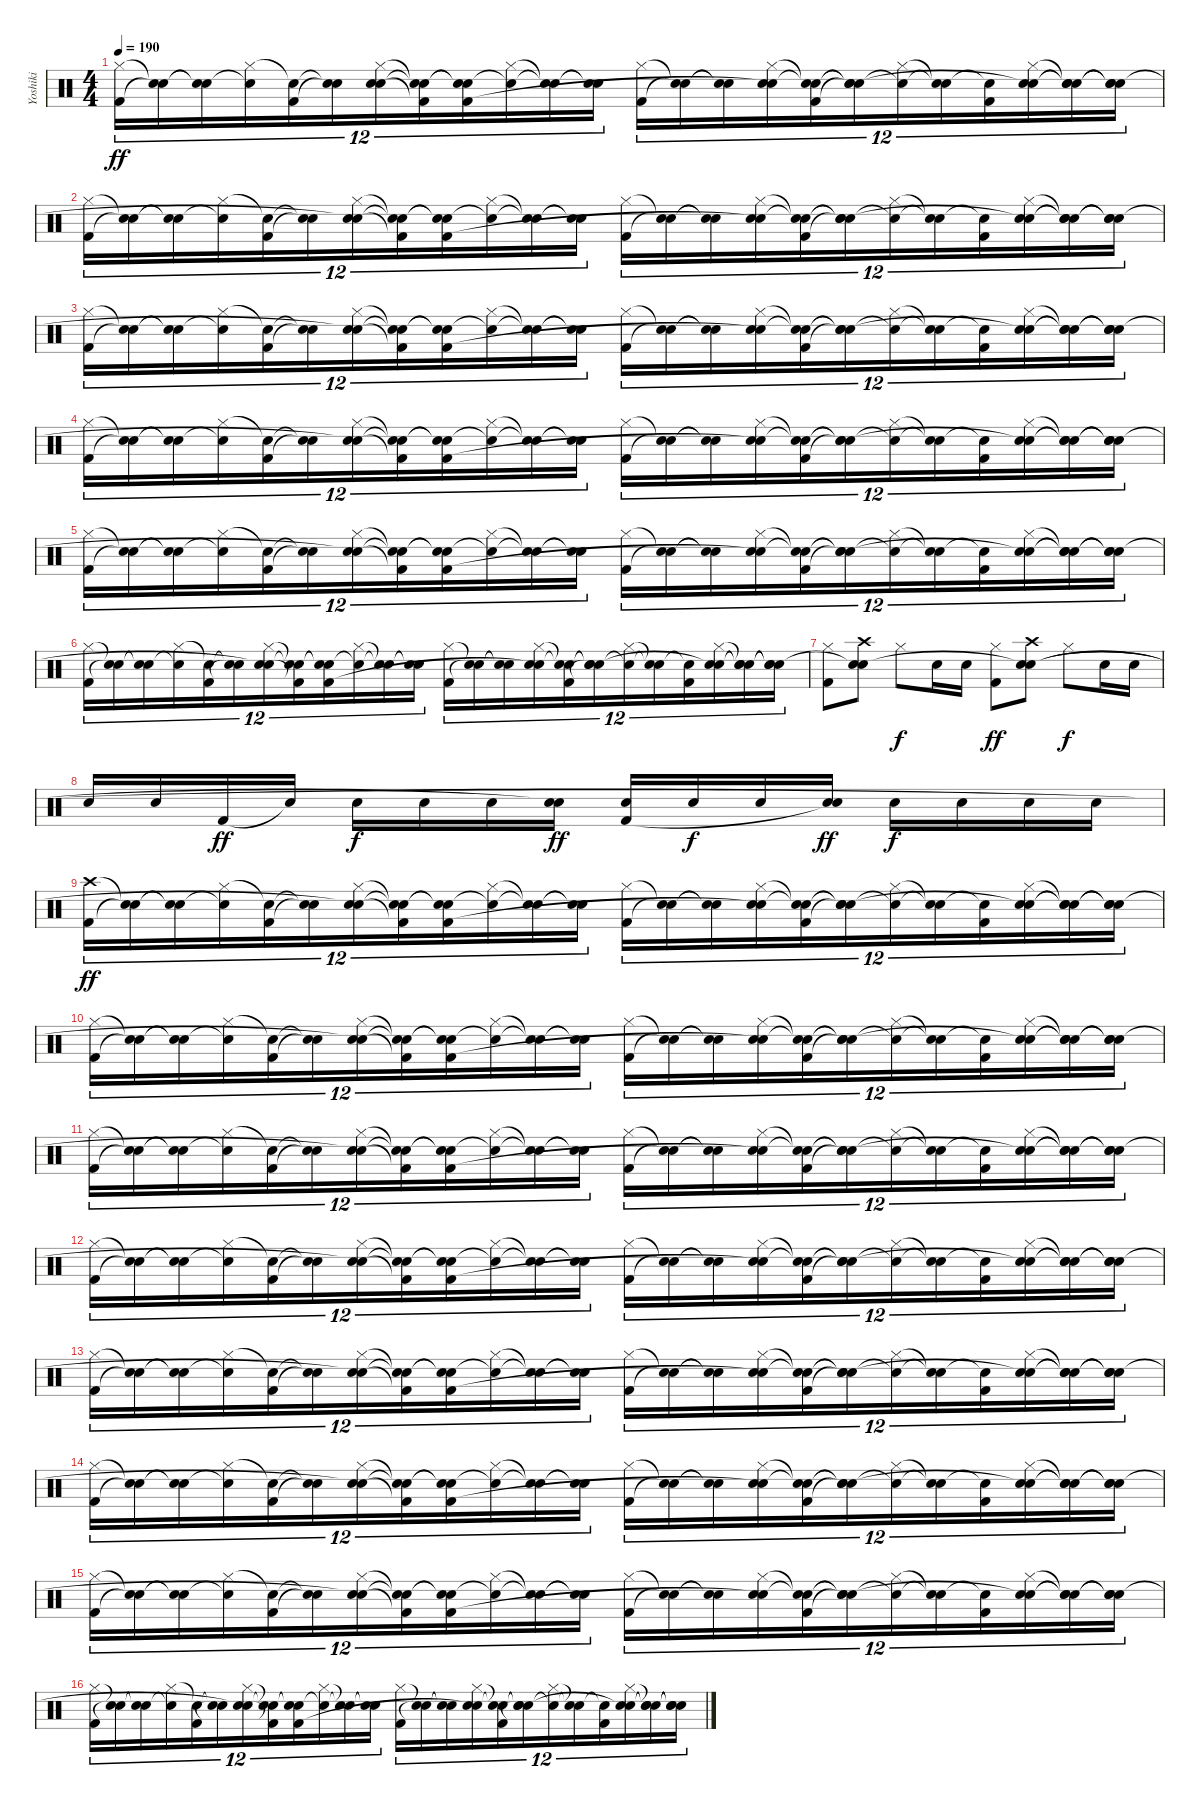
\track ("Yoshiki" "Yoshiki") {instrument percussion}
\staff {score}
\articulation defaults
\ts (4 4)
\tempo 190
\clef neutral
\ks c
("Hi-Hat (closed)" "Kick (hit) 2").16{tu (12 8) dy ff} ("Snare (hit)"{t} "Snare (hit)"{t}).16{tu (12 8)} ("Snare (hit)"{t} "Snare (hit)"{t}).16{tu (12 8)} ("Hi-Hat (closed)" "Snare (hit)"{t}).16{tu (12 8)} ("Snare (hit)"{t} "Kick (hit) 2").16{tu (12 8)} ("Snare (hit)"{t} "Snare (hit)"{t}).16{tu (12 8)} ("Hi-Hat (closed)" "Snare (hit) 2" "Snare (hit)"{t}).16{tu (12 8)} ("Snare (hit)"{t} "Snare (hit)"{t} "Kick (hit) 2"{t}).16{tu (12 8)} ("Snare (hit)"{t} "Snare (hit)"{t} "Kick (hit) 2").16{tu (12 8)} ("Hi-Hat (closed)" "Snare (hit)"{t}).16{tu (12 8)} ("Snare (hit)"{t} "Snare (hit)"{t}).16{tu (12 8)} ("Snare (hit)"{t} "Snare (hit)"{t}).16{tu (12 8)} ("Hi-Hat (closed)" "Kick (hit) 2").16{tu (12 8)} ("Snare (hit)"{t} "Snare (hit)"{t}).16{tu (12 8)} ("Snare (hit)"{t} "Snare (hit)"{t}).16{tu (12 8)} ("Hi-Hat (closed)" "Snare (hit) 2" "Snare (hit)"{t}).16{tu (12 8)} ("Snare (hit)"{t} "Snare (hit)"{t} "Kick (hit) 2").16{tu (12 8)} ("Snare (hit)"{t} "Snare (hit)"{t} "Snare (hit)"{t}).16{tu (12 8)} ("Hi-Hat (closed)" "Snare (hit)"{t}).16{tu (12 8)} ("Snare (hit)"{t} "Snare (hit)"{t}).16{tu (12 8)} ("Snare (hit)"{t} "Kick (hit) 2").16{tu (12 8)} ("Hi-Hat (closed)" "Snare (hit) 2" "Snare (hit)"{t}).16{tu (12 8)} ("Snare (hit)"{t} "Snare (hit)"{t} "Snare (hit)"{t}).16{tu (12 8)} ("Snare (hit)"{t} "Snare (hit)"{t} "Snare (hit)"{t}).16{tu (12 8)} |
("Hi-Hat (closed)" "Kick (hit) 2").16{tu (12 8)} ("Snare (hit)"{t} "Snare (hit)"{t}).16{tu (12 8)} ("Snare (hit)"{t} "Snare (hit)"{t}).16{tu (12 8)} ("Hi-Hat (closed)" "Snare (hit)"{t}).16{tu (12 8)} ("Snare (hit)"{t} "Kick (hit) 2").16{tu (12 8)} ("Snare (hit)"{t} "Snare (hit)"{t}).16{tu (12 8)} ("Hi-Hat (closed)" "Snare (hit) 2" "Snare (hit)"{t}).16{tu (12 8)} ("Snare (hit)"{t} "Snare (hit)"{t} "Kick (hit) 2"{t}).16{tu (12 8)} ("Snare (hit)"{t} "Snare (hit)"{t} "Kick (hit) 2").16{tu (12 8)} ("Hi-Hat (closed)" "Snare (hit)"{t}).16{tu (12 8)} ("Snare (hit)"{t} "Snare (hit)"{t}).16{tu (12 8)} ("Snare (hit)"{t} "Snare (hit)"{t}).16{tu (12 8)} ("Hi-Hat (closed)" "Kick (hit) 2").16{tu (12 8)} ("Snare (hit)"{t} "Snare (hit)"{t}).16{tu (12 8)} ("Snare (hit)"{t} "Snare (hit)"{t}).16{tu (12 8)} ("Hi-Hat (closed)" "Snare (hit) 2" "Snare (hit)"{t}).16{tu (12 8)} ("Snare (hit)"{t} "Snare (hit)"{t} "Kick (hit) 2").16{tu (12 8)} ("Snare (hit)"{t} "Snare (hit)"{t} "Snare (hit)"{t}).16{tu (12 8)} ("Hi-Hat (closed)" "Snare (hit)"{t}).16{tu (12 8)} ("Snare (hit)"{t} "Snare (hit)"{t}).16{tu (12 8)} ("Snare (hit)"{t} "Kick (hit) 2").16{tu (12 8)} ("Hi-Hat (closed)" "Snare (hit) 2" "Snare (hit)"{t}).16{tu (12 8)} ("Snare (hit)"{t} "Snare (hit)"{t} "Snare (hit)"{t}).16{tu (12 8)} ("Snare (hit)"{t} "Snare (hit)"{t} "Snare (hit)"{t}).16{tu (12 8)} |
("Hi-Hat (closed)" "Kick (hit) 2").16{tu (12 8)} ("Snare (hit)"{t} "Snare (hit)"{t}).16{tu (12 8)} ("Snare (hit)"{t} "Snare (hit)"{t}).16{tu (12 8)} ("Hi-Hat (closed)" "Snare (hit)"{t}).16{tu (12 8)} ("Snare (hit)"{t} "Kick (hit) 2").16{tu (12 8)} ("Snare (hit)"{t} "Snare (hit)"{t}).16{tu (12 8)} ("Hi-Hat (closed)" "Snare (hit) 2" "Snare (hit)"{t}).16{tu (12 8)} ("Snare (hit)"{t} "Snare (hit)"{t} "Kick (hit) 2"{t}).16{tu (12 8)} ("Snare (hit)"{t} "Snare (hit)"{t} "Kick (hit) 2").16{tu (12 8)} ("Hi-Hat (closed)" "Snare (hit)"{t}).16{tu (12 8)} ("Snare (hit)"{t} "Snare (hit)"{t}).16{tu (12 8)} ("Snare (hit)"{t} "Snare (hit)"{t}).16{tu (12 8)} ("Hi-Hat (closed)" "Kick (hit) 2").16{tu (12 8)} ("Snare (hit)"{t} "Snare (hit)"{t}).16{tu (12 8)} ("Snare (hit)"{t} "Snare (hit)"{t}).16{tu (12 8)} ("Hi-Hat (closed)" "Snare (hit) 2" "Snare (hit)"{t}).16{tu (12 8)} ("Snare (hit)"{t} "Snare (hit)"{t} "Kick (hit) 2").16{tu (12 8)} ("Snare (hit)"{t} "Snare (hit)"{t} "Snare (hit)"{t}).16{tu (12 8)} ("Hi-Hat (closed)" "Snare (hit)"{t}).16{tu (12 8)} ("Snare (hit)"{t} "Snare (hit)"{t}).16{tu (12 8)} ("Snare (hit)"{t} "Kick (hit) 2").16{tu (12 8)} ("Hi-Hat (closed)" "Snare (hit) 2" "Snare (hit)"{t}).16{tu (12 8)} ("Snare (hit)"{t} "Snare (hit)"{t} "Snare (hit)"{t}).16{tu (12 8)} ("Snare (hit)"{t} "Snare (hit)"{t} "Snare (hit)"{t}).16{tu (12 8)} |
("Hi-Hat (closed)" "Kick (hit) 2").16{tu (12 8)} ("Snare (hit)"{t} "Snare (hit)"{t}).16{tu (12 8)} ("Snare (hit)"{t} "Snare (hit)"{t}).16{tu (12 8)} ("Hi-Hat (closed)" "Snare (hit)"{t}).16{tu (12 8)} ("Snare (hit)"{t} "Kick (hit) 2").16{tu (12 8)} ("Snare (hit)"{t} "Snare (hit)"{t}).16{tu (12 8)} ("Hi-Hat (closed)" "Snare (hit) 2" "Snare (hit)"{t}).16{tu (12 8)} ("Snare (hit)"{t} "Snare (hit)"{t} "Kick (hit) 2"{t}).16{tu (12 8)} ("Snare (hit)"{t} "Snare (hit)"{t} "Kick (hit) 2").16{tu (12 8)} ("Hi-Hat (closed)" "Snare (hit)"{t}).16{tu (12 8)} ("Snare (hit)"{t} "Snare (hit)"{t}).16{tu (12 8)} ("Snare (hit)"{t} "Snare (hit)"{t}).16{tu (12 8)} ("Hi-Hat (closed)" "Kick (hit) 2").16{tu (12 8)} ("Snare (hit)"{t} "Snare (hit)"{t}).16{tu (12 8)} ("Snare (hit)"{t} "Snare (hit)"{t}).16{tu (12 8)} ("Hi-Hat (closed)" "Snare (hit) 2" "Snare (hit)"{t}).16{tu (12 8)} ("Snare (hit)"{t} "Snare (hit)"{t} "Kick (hit) 2").16{tu (12 8)} ("Snare (hit)"{t} "Snare (hit)"{t} "Snare (hit)"{t}).16{tu (12 8)} ("Hi-Hat (closed)" "Snare (hit)"{t}).16{tu (12 8)} ("Snare (hit)"{t} "Snare (hit)"{t}).16{tu (12 8)} ("Snare (hit)"{t} "Kick (hit) 2").16{tu (12 8)} ("Hi-Hat (closed)" "Snare (hit) 2" "Snare (hit)"{t}).16{tu (12 8)} ("Snare (hit)"{t} "Snare (hit)"{t} "Snare (hit)"{t}).16{tu (12 8)} ("Snare (hit)"{t} "Snare (hit)"{t} "Snare (hit)"{t}).16{tu (12 8)} |
("Hi-Hat (closed)" "Kick (hit) 2").16{tu (12 8)} ("Snare (hit)"{t} "Snare (hit)"{t}).16{tu (12 8)} ("Snare (hit)"{t} "Snare (hit)"{t}).16{tu (12 8)} ("Hi-Hat (closed)" "Snare (hit)"{t}).16{tu (12 8)} ("Snare (hit)"{t} "Kick (hit) 2").16{tu (12 8)} ("Snare (hit)"{t} "Snare (hit)"{t}).16{tu (12 8)} ("Hi-Hat (closed)" "Snare (hit) 2" "Snare (hit)"{t}).16{tu (12 8)} ("Snare (hit)"{t} "Snare (hit)"{t} "Kick (hit) 2"{t}).16{tu (12 8)} ("Snare (hit)"{t} "Snare (hit)"{t} "Kick (hit) 2").16{tu (12 8)} ("Hi-Hat (closed)" "Snare (hit)"{t}).16{tu (12 8)} ("Snare (hit)"{t} "Snare (hit)"{t}).16{tu (12 8)} ("Snare (hit)"{t} "Snare (hit)"{t}).16{tu (12 8)} ("Hi-Hat (closed)" "Kick (hit) 2").16{tu (12 8)} ("Snare (hit)"{t} "Snare (hit)"{t}).16{tu (12 8)} ("Snare (hit)"{t} "Snare (hit)"{t}).16{tu (12 8)} ("Hi-Hat (closed)" "Snare (hit) 2" "Snare (hit)"{t}).16{tu (12 8)} ("Snare (hit)"{t} "Snare (hit)"{t} "Kick (hit) 2").16{tu (12 8)} ("Snare (hit)"{t} "Snare (hit)"{t} "Snare (hit)"{t}).16{tu (12 8)} ("Hi-Hat (closed)" "Snare (hit)"{t}).16{tu (12 8)} ("Snare (hit)"{t} "Snare (hit)"{t}).16{tu (12 8)} ("Snare (hit)"{t} "Kick (hit) 2").16{tu (12 8)} ("Hi-Hat (closed)" "Snare (hit) 2" "Snare (hit)"{t}).16{tu (12 8)} ("Snare (hit)"{t} "Snare (hit)"{t} "Snare (hit)"{t}).16{tu (12 8)} ("Snare (hit)"{t} "Snare (hit)"{t} "Snare (hit)"{t}).16{tu (12 8)} |
("Hi-Hat (closed)" "Kick (hit) 2").16{tu (12 8)} ("Snare (hit)"{t} "Snare (hit)"{t}).16{tu (12 8)} ("Snare (hit)"{t} "Snare (hit)"{t}).16{tu (12 8)} ("Hi-Hat (closed)" "Snare (hit)"{t}).16{tu (12 8)} ("Snare (hit)"{t} "Kick (hit) 2").16{tu (12 8)} ("Snare (hit)"{t} "Snare (hit)"{t}).16{tu (12 8)} ("Hi-Hat (closed)" "Snare (hit) 2" "Snare (hit)"{t}).16{tu (12 8)} ("Snare (hit)"{t} "Snare (hit)"{t} "Kick (hit) 2"{t}).16{tu (12 8)} ("Snare (hit)"{t} "Snare (hit)"{t} "Kick (hit) 2").16{tu (12 8)} ("Hi-Hat (closed)" "Snare (hit)"{t}).16{tu (12 8)} ("Snare (hit)"{t} "Snare (hit)"{t}).16{tu (12 8)} ("Snare (hit)"{t} "Snare (hit)"{t}).16{tu (12 8)} ("Hi-Hat (closed)" "Kick (hit) 2").16{tu (12 8)} ("Snare (hit)"{t} "Snare (hit)"{t}).16{tu (12 8)} ("Snare (hit)"{t} "Snare (hit)"{t}).16{tu (12 8)} ("Hi-Hat (closed)" "Snare (hit) 2" "Snare (hit)"{t}).16{tu (12 8)} ("Snare (hit)"{t} "Snare (hit)"{t} "Kick (hit) 2").16{tu (12 8)} ("Snare (hit)"{t} "Snare (hit)"{t} "Snare (hit)"{t}).16{tu (12 8)} ("Hi-Hat (closed)" "Snare (hit)"{t}).16{tu (12 8)} ("Snare (hit)"{t} "Snare (hit)"{t}).16{tu (12 8)} ("Snare (hit)"{t} "Kick (hit) 2").16{tu (12 8)} ("Hi-Hat (closed)" "Snare (hit) 2" "Snare (hit)"{t}).16{tu (12 8)} ("Snare (hit)"{t} "Snare (hit)"{t} "Snare (hit)"{t}).16{tu (12 8)} ("Snare (hit)"{t} "Snare (hit)"{t} "Snare (hit)"{t}).16{tu (12 8)} |
("Hi-Hat (closed)" "Kick (hit) 2").8 ("Crash high (hit)" "Snare (hit) 2" "Snare (hit)"{t}).8 "Hi-Hat (closed)".8{dy f} "Snare (hit) 2".16 "Snare (hit) 2".16 ("Hi-Hat (closed)" "Kick (hit) 2").8{dy ff} ("Crash high (hit)" "Snare (hit) 2" "Snare (hit)"{t}).8 "Hi-Hat (closed)".8{dy f} "Snare (hit) 2".16 "Snare (hit) 2".16 |
"Snare (hit) 2".16 "Snare (hit) 2".16 "Kick (hit) 2".16{dy ff} "Snare (hit)"{t}.16 "Snare (hit) 2".16{dy f} "Snare (hit) 2".16 "Snare (hit) 2".16 ("Snare (hit) 2" "Snare (hit)"{t}).16{dy ff} ("Snare (hit) 2" "Kick (hit) 2").16 "Snare (hit) 2".16{dy f} "Snare (hit) 2".16 ("Snare (hit) 2" "Snare (hit)"{t}).16{dy ff} "Snare (hit) 2".16{dy f} "Snare (hit) 2".16 "Snare (hit) 2".16 "Snare (hit) 2".16 |
("Crash high (hit)" "Kick (hit) 2").16{tu (12 8) dy ff} ("Snare (hit)"{t} "Snare (hit)"{t}).16{tu (12 8)} ("Snare (hit)"{t} "Snare (hit)"{t}).16{tu (12 8)} ("Hi-Hat (closed)" "Snare (hit)"{t}).16{tu (12 8)} ("Snare (hit)"{t} "Kick (hit) 2").16{tu (12 8)} ("Snare (hit)"{t} "Snare (hit)"{t}).16{tu (12 8)} ("Hi-Hat (closed)" "Snare (hit) 2" "Snare (hit)"{t}).16{tu (12 8)} ("Snare (hit)"{t} "Snare (hit)"{t} "Kick (hit) 2"{t}).16{tu (12 8)} ("Snare (hit)"{t} "Snare (hit)"{t} "Kick (hit) 2").16{tu (12 8)} ("Hi-Hat (closed)" "Snare (hit)"{t}).16{tu (12 8)} ("Snare (hit)"{t} "Snare (hit)"{t}).16{tu (12 8)} ("Snare (hit)"{t} "Snare (hit)"{t}).16{tu (12 8)} ("Hi-Hat (closed)" "Kick (hit) 2").16{tu (12 8)} ("Snare (hit)"{t} "Snare (hit)"{t}).16{tu (12 8)} ("Snare (hit)"{t} "Snare (hit)"{t}).16{tu (12 8)} ("Hi-Hat (closed)" "Snare (hit) 2" "Snare (hit)"{t}).16{tu (12 8)} ("Snare (hit)"{t} "Snare (hit)"{t} "Kick (hit) 2").16{tu (12 8)} ("Snare (hit)"{t} "Snare (hit)"{t} "Snare (hit)"{t}).16{tu (12 8)} ("Hi-Hat (closed)" "Snare (hit)"{t}).16{tu (12 8)} ("Snare (hit)"{t} "Snare (hit)"{t}).16{tu (12 8)} ("Snare (hit)"{t} "Kick (hit) 2").16{tu (12 8)} ("Hi-Hat (closed)" "Snare (hit) 2" "Snare (hit)"{t}).16{tu (12 8)} ("Snare (hit)"{t} "Snare (hit)"{t} "Snare (hit)"{t}).16{tu (12 8)} ("Snare (hit)"{t} "Snare (hit)"{t} "Snare (hit)"{t}).16{tu (12 8)} |
("Hi-Hat (closed)" "Kick (hit) 2").16{tu (12 8)} ("Snare (hit)"{t} "Snare (hit)"{t}).16{tu (12 8)} ("Snare (hit)"{t} "Snare (hit)"{t}).16{tu (12 8)} ("Hi-Hat (closed)" "Snare (hit)"{t}).16{tu (12 8)} ("Snare (hit)"{t} "Kick (hit) 2").16{tu (12 8)} ("Snare (hit)"{t} "Snare (hit)"{t}).16{tu (12 8)} ("Hi-Hat (closed)" "Snare (hit) 2" "Snare (hit)"{t}).16{tu (12 8)} ("Snare (hit)"{t} "Snare (hit)"{t} "Kick (hit) 2"{t}).16{tu (12 8)} ("Snare (hit)"{t} "Snare (hit)"{t} "Kick (hit) 2").16{tu (12 8)} ("Hi-Hat (closed)" "Snare (hit)"{t}).16{tu (12 8)} ("Snare (hit)"{t} "Snare (hit)"{t}).16{tu (12 8)} ("Snare (hit)"{t} "Snare (hit)"{t}).16{tu (12 8)} ("Hi-Hat (closed)" "Kick (hit) 2").16{tu (12 8)} ("Snare (hit)"{t} "Snare (hit)"{t}).16{tu (12 8)} ("Snare (hit)"{t} "Snare (hit)"{t}).16{tu (12 8)} ("Hi-Hat (closed)" "Snare (hit) 2" "Snare (hit)"{t}).16{tu (12 8)} ("Snare (hit)"{t} "Snare (hit)"{t} "Kick (hit) 2").16{tu (12 8)} ("Snare (hit)"{t} "Snare (hit)"{t} "Snare (hit)"{t}).16{tu (12 8)} ("Hi-Hat (closed)" "Snare (hit)"{t}).16{tu (12 8)} ("Snare (hit)"{t} "Snare (hit)"{t}).16{tu (12 8)} ("Snare (hit)"{t} "Kick (hit) 2").16{tu (12 8)} ("Hi-Hat (closed)" "Snare (hit) 2" "Snare (hit)"{t}).16{tu (12 8)} ("Snare (hit)"{t} "Snare (hit)"{t} "Snare (hit)"{t}).16{tu (12 8)} ("Snare (hit)"{t} "Snare (hit)"{t} "Snare (hit)"{t}).16{tu (12 8)} |
("Hi-Hat (closed)" "Kick (hit) 2").16{tu (12 8)} ("Snare (hit)"{t} "Snare (hit)"{t}).16{tu (12 8)} ("Snare (hit)"{t} "Snare (hit)"{t}).16{tu (12 8)} ("Hi-Hat (closed)" "Snare (hit)"{t}).16{tu (12 8)} ("Snare (hit)"{t} "Kick (hit) 2").16{tu (12 8)} ("Snare (hit)"{t} "Snare (hit)"{t}).16{tu (12 8)} ("Hi-Hat (closed)" "Snare (hit) 2" "Snare (hit)"{t}).16{tu (12 8)} ("Snare (hit)"{t} "Snare (hit)"{t} "Kick (hit) 2"{t}).16{tu (12 8)} ("Snare (hit)"{t} "Snare (hit)"{t} "Kick (hit) 2").16{tu (12 8)} ("Hi-Hat (closed)" "Snare (hit)"{t}).16{tu (12 8)} ("Snare (hit)"{t} "Snare (hit)"{t}).16{tu (12 8)} ("Snare (hit)"{t} "Snare (hit)"{t}).16{tu (12 8)} ("Hi-Hat (closed)" "Kick (hit) 2").16{tu (12 8)} ("Snare (hit)"{t} "Snare (hit)"{t}).16{tu (12 8)} ("Snare (hit)"{t} "Snare (hit)"{t}).16{tu (12 8)} ("Hi-Hat (closed)" "Snare (hit) 2" "Snare (hit)"{t}).16{tu (12 8)} ("Snare (hit)"{t} "Snare (hit)"{t} "Kick (hit) 2").16{tu (12 8)} ("Snare (hit)"{t} "Snare (hit)"{t} "Snare (hit)"{t}).16{tu (12 8)} ("Hi-Hat (closed)" "Snare (hit)"{t}).16{tu (12 8)} ("Snare (hit)"{t} "Snare (hit)"{t}).16{tu (12 8)} ("Snare (hit)"{t} "Kick (hit) 2").16{tu (12 8)} ("Hi-Hat (closed)" "Snare (hit) 2" "Snare (hit)"{t}).16{tu (12 8)} ("Snare (hit)"{t} "Snare (hit)"{t} "Snare (hit)"{t}).16{tu (12 8)} ("Snare (hit)"{t} "Snare (hit)"{t} "Snare (hit)"{t}).16{tu (12 8)} |
("Hi-Hat (closed)" "Kick (hit) 2").16{tu (12 8)} ("Snare (hit)"{t} "Snare (hit)"{t}).16{tu (12 8)} ("Snare (hit)"{t} "Snare (hit)"{t}).16{tu (12 8)} ("Hi-Hat (closed)" "Snare (hit)"{t}).16{tu (12 8)} ("Snare (hit)"{t} "Kick (hit) 2").16{tu (12 8)} ("Snare (hit)"{t} "Snare (hit)"{t}).16{tu (12 8)} ("Hi-Hat (closed)" "Snare (hit) 2" "Snare (hit)"{t}).16{tu (12 8)} ("Snare (hit)"{t} "Snare (hit)"{t} "Kick (hit) 2"{t}).16{tu (12 8)} ("Snare (hit)"{t} "Snare (hit)"{t} "Kick (hit) 2").16{tu (12 8)} ("Hi-Hat (closed)" "Snare (hit)"{t}).16{tu (12 8)} ("Snare (hit)"{t} "Snare (hit)"{t}).16{tu (12 8)} ("Snare (hit)"{t} "Snare (hit)"{t}).16{tu (12 8)} ("Hi-Hat (closed)" "Kick (hit) 2").16{tu (12 8)} ("Snare (hit)"{t} "Snare (hit)"{t}).16{tu (12 8)} ("Snare (hit)"{t} "Snare (hit)"{t}).16{tu (12 8)} ("Hi-Hat (closed)" "Snare (hit) 2" "Snare (hit)"{t}).16{tu (12 8)} ("Snare (hit)"{t} "Snare (hit)"{t} "Kick (hit) 2").16{tu (12 8)} ("Snare (hit)"{t} "Snare (hit)"{t} "Snare (hit)"{t}).16{tu (12 8)} ("Hi-Hat (closed)" "Snare (hit)"{t}).16{tu (12 8)} ("Snare (hit)"{t} "Snare (hit)"{t}).16{tu (12 8)} ("Snare (hit)"{t} "Kick (hit) 2").16{tu (12 8)} ("Hi-Hat (closed)" "Snare (hit) 2" "Snare (hit)"{t}).16{tu (12 8)} ("Snare (hit)"{t} "Snare (hit)"{t} "Snare (hit)"{t}).16{tu (12 8)} ("Snare (hit)"{t} "Snare (hit)"{t} "Snare (hit)"{t}).16{tu (12 8)} |
("Hi-Hat (closed)" "Kick (hit) 2").16{tu (12 8)} ("Snare (hit)"{t} "Snare (hit)"{t}).16{tu (12 8)} ("Snare (hit)"{t} "Snare (hit)"{t}).16{tu (12 8)} ("Hi-Hat (closed)" "Snare (hit)"{t}).16{tu (12 8)} ("Snare (hit)"{t} "Kick (hit) 2").16{tu (12 8)} ("Snare (hit)"{t} "Snare (hit)"{t}).16{tu (12 8)} ("Hi-Hat (closed)" "Snare (hit) 2" "Snare (hit)"{t}).16{tu (12 8)} ("Snare (hit)"{t} "Snare (hit)"{t} "Kick (hit) 2"{t}).16{tu (12 8)} ("Snare (hit)"{t} "Snare (hit)"{t} "Kick (hit) 2").16{tu (12 8)} ("Hi-Hat (closed)" "Snare (hit)"{t}).16{tu (12 8)} ("Snare (hit)"{t} "Snare (hit)"{t}).16{tu (12 8)} ("Snare (hit)"{t} "Snare (hit)"{t}).16{tu (12 8)} ("Hi-Hat (closed)" "Kick (hit) 2").16{tu (12 8)} ("Snare (hit)"{t} "Snare (hit)"{t}).16{tu (12 8)} ("Snare (hit)"{t} "Snare (hit)"{t}).16{tu (12 8)} ("Hi-Hat (closed)" "Snare (hit) 2" "Snare (hit)"{t}).16{tu (12 8)} ("Snare (hit)"{t} "Snare (hit)"{t} "Kick (hit) 2").16{tu (12 8)} ("Snare (hit)"{t} "Snare (hit)"{t} "Snare (hit)"{t}).16{tu (12 8)} ("Hi-Hat (closed)" "Snare (hit)"{t}).16{tu (12 8)} ("Snare (hit)"{t} "Snare (hit)"{t}).16{tu (12 8)} ("Snare (hit)"{t} "Kick (hit) 2").16{tu (12 8)} ("Hi-Hat (closed)" "Snare (hit) 2" "Snare (hit)"{t}).16{tu (12 8)} ("Snare (hit)"{t} "Snare (hit)"{t} "Snare (hit)"{t}).16{tu (12 8)} ("Snare (hit)"{t} "Snare (hit)"{t} "Snare (hit)"{t}).16{tu (12 8)} |
("Hi-Hat (closed)" "Kick (hit) 2").16{tu (12 8)} ("Snare (hit)"{t} "Snare (hit)"{t}).16{tu (12 8)} ("Snare (hit)"{t} "Snare (hit)"{t}).16{tu (12 8)} ("Hi-Hat (closed)" "Snare (hit)"{t}).16{tu (12 8)} ("Snare (hit)"{t} "Kick (hit) 2").16{tu (12 8)} ("Snare (hit)"{t} "Snare (hit)"{t}).16{tu (12 8)} ("Hi-Hat (closed)" "Snare (hit) 2" "Snare (hit)"{t}).16{tu (12 8)} ("Snare (hit)"{t} "Snare (hit)"{t} "Kick (hit) 2"{t}).16{tu (12 8)} ("Snare (hit)"{t} "Snare (hit)"{t} "Kick (hit) 2").16{tu (12 8)} ("Hi-Hat (closed)" "Snare (hit)"{t}).16{tu (12 8)} ("Snare (hit)"{t} "Snare (hit)"{t}).16{tu (12 8)} ("Snare (hit)"{t} "Snare (hit)"{t}).16{tu (12 8)} ("Hi-Hat (closed)" "Kick (hit) 2").16{tu (12 8)} ("Snare (hit)"{t} "Snare (hit)"{t}).16{tu (12 8)} ("Snare (hit)"{t} "Snare (hit)"{t}).16{tu (12 8)} ("Hi-Hat (closed)" "Snare (hit) 2" "Snare (hit)"{t}).16{tu (12 8)} ("Snare (hit)"{t} "Snare (hit)"{t} "Kick (hit) 2").16{tu (12 8)} ("Snare (hit)"{t} "Snare (hit)"{t} "Snare (hit)"{t}).16{tu (12 8)} ("Hi-Hat (closed)" "Snare (hit)"{t}).16{tu (12 8)} ("Snare (hit)"{t} "Snare (hit)"{t}).16{tu (12 8)} ("Snare (hit)"{t} "Kick (hit) 2").16{tu (12 8)} ("Hi-Hat (closed)" "Snare (hit) 2" "Snare (hit)"{t}).16{tu (12 8)} ("Snare (hit)"{t} "Snare (hit)"{t} "Snare (hit)"{t}).16{tu (12 8)} ("Snare (hit)"{t} "Snare (hit)"{t} "Snare (hit)"{t}).16{tu (12 8)} |
("Hi-Hat (closed)" "Kick (hit) 2").16{tu (12 8)} ("Snare (hit)"{t} "Snare (hit)"{t}).16{tu (12 8)} ("Snare (hit)"{t} "Snare (hit)"{t}).16{tu (12 8)} ("Hi-Hat (closed)" "Snare (hit)"{t}).16{tu (12 8)} ("Snare (hit)"{t} "Kick (hit) 2").16{tu (12 8)} ("Snare (hit)"{t} "Snare (hit)"{t}).16{tu (12 8)} ("Hi-Hat (closed)" "Snare (hit) 2" "Snare (hit)"{t}).16{tu (12 8)} ("Snare (hit)"{t} "Snare (hit)"{t} "Kick (hit) 2"{t}).16{tu (12 8)} ("Snare (hit)"{t} "Snare (hit)"{t} "Kick (hit) 2").16{tu (12 8)} ("Hi-Hat (closed)" "Snare (hit)"{t}).16{tu (12 8)} ("Snare (hit)"{t} "Snare (hit)"{t}).16{tu (12 8)} ("Snare (hit)"{t} "Snare (hit)"{t}).16{tu (12 8)} ("Hi-Hat (closed)" "Kick (hit) 2").16{tu (12 8)} ("Snare (hit)"{t} "Snare (hit)"{t}).16{tu (12 8)} ("Snare (hit)"{t} "Snare (hit)"{t}).16{tu (12 8)} ("Hi-Hat (closed)" "Snare (hit) 2" "Snare (hit)"{t}).16{tu (12 8)} ("Snare (hit)"{t} "Snare (hit)"{t} "Kick (hit) 2").16{tu (12 8)} ("Snare (hit)"{t} "Snare (hit)"{t} "Snare (hit)"{t}).16{tu (12 8)} ("Hi-Hat (closed)" "Snare (hit)"{t}).16{tu (12 8)} ("Snare (hit)"{t} "Snare (hit)"{t}).16{tu (12 8)} ("Snare (hit)"{t} "Kick (hit) 2").16{tu (12 8)} ("Hi-Hat (closed)" "Snare (hit) 2" "Snare (hit)"{t}).16{tu (12 8)} ("Snare (hit)"{t} "Snare (hit)"{t} "Snare (hit)"{t}).16{tu (12 8)} ("Snare (hit)"{t} "Snare (hit)"{t} "Snare (hit)"{t}).16{tu (12 8)} |
("Hi-Hat (closed)" "Kick (hit) 2").16{tu (12 8)} ("Snare (hit)"{t} "Snare (hit)"{t}).16{tu (12 8)} ("Snare (hit)"{t} "Snare (hit)"{t}).16{tu (12 8)} ("Hi-Hat (closed)" "Snare (hit)"{t}).16{tu (12 8)} ("Snare (hit)"{t} "Kick (hit) 2").16{tu (12 8)} ("Snare (hit)"{t} "Snare (hit)"{t}).16{tu (12 8)} ("Hi-Hat (closed)" "Snare (hit) 2" "Snare (hit)"{t}).16{tu (12 8)} ("Snare (hit)"{t} "Snare (hit)"{t} "Kick (hit) 2"{t}).16{tu (12 8)} ("Snare (hit)"{t} "Snare (hit)"{t} "Kick (hit) 2").16{tu (12 8)} ("Hi-Hat (closed)" "Snare (hit)"{t}).16{tu (12 8)} ("Snare (hit)"{t} "Snare (hit)"{t}).16{tu (12 8)} ("Snare (hit)"{t} "Snare (hit)"{t}).16{tu (12 8)} ("Hi-Hat (closed)" "Kick (hit) 2").16{tu (12 8)} ("Snare (hit)"{t} "Snare (hit)"{t}).16{tu (12 8)} ("Snare (hit)"{t} "Snare (hit)"{t}).16{tu (12 8)} ("Hi-Hat (closed)" "Snare (hit) 2" "Snare (hit)"{t}).16{tu (12 8)} ("Snare (hit)"{t} "Snare (hit)"{t} "Kick (hit) 2").16{tu (12 8)} ("Snare (hit)"{t} "Snare (hit)"{t} "Snare (hit)"{t}).16{tu (12 8)} ("Hi-Hat (closed)" "Snare (hit)"{t}).16{tu (12 8)} ("Snare (hit)"{t} "Snare (hit)"{t}).16{tu (12 8)} ("Snare (hit)"{t} "Kick (hit) 2").16{tu (12 8)} ("Hi-Hat (closed)" "Snare (hit) 2" "Snare (hit)"{t}).16{tu (12 8)} ("Snare (hit)"{t} "Snare (hit)"{t} "Snare (hit)"{t}).16{tu (12 8)} ("Snare (hit)"{t} "Snare (hit)"{t} "Snare (hit)"{t}).16{tu (12 8)}
